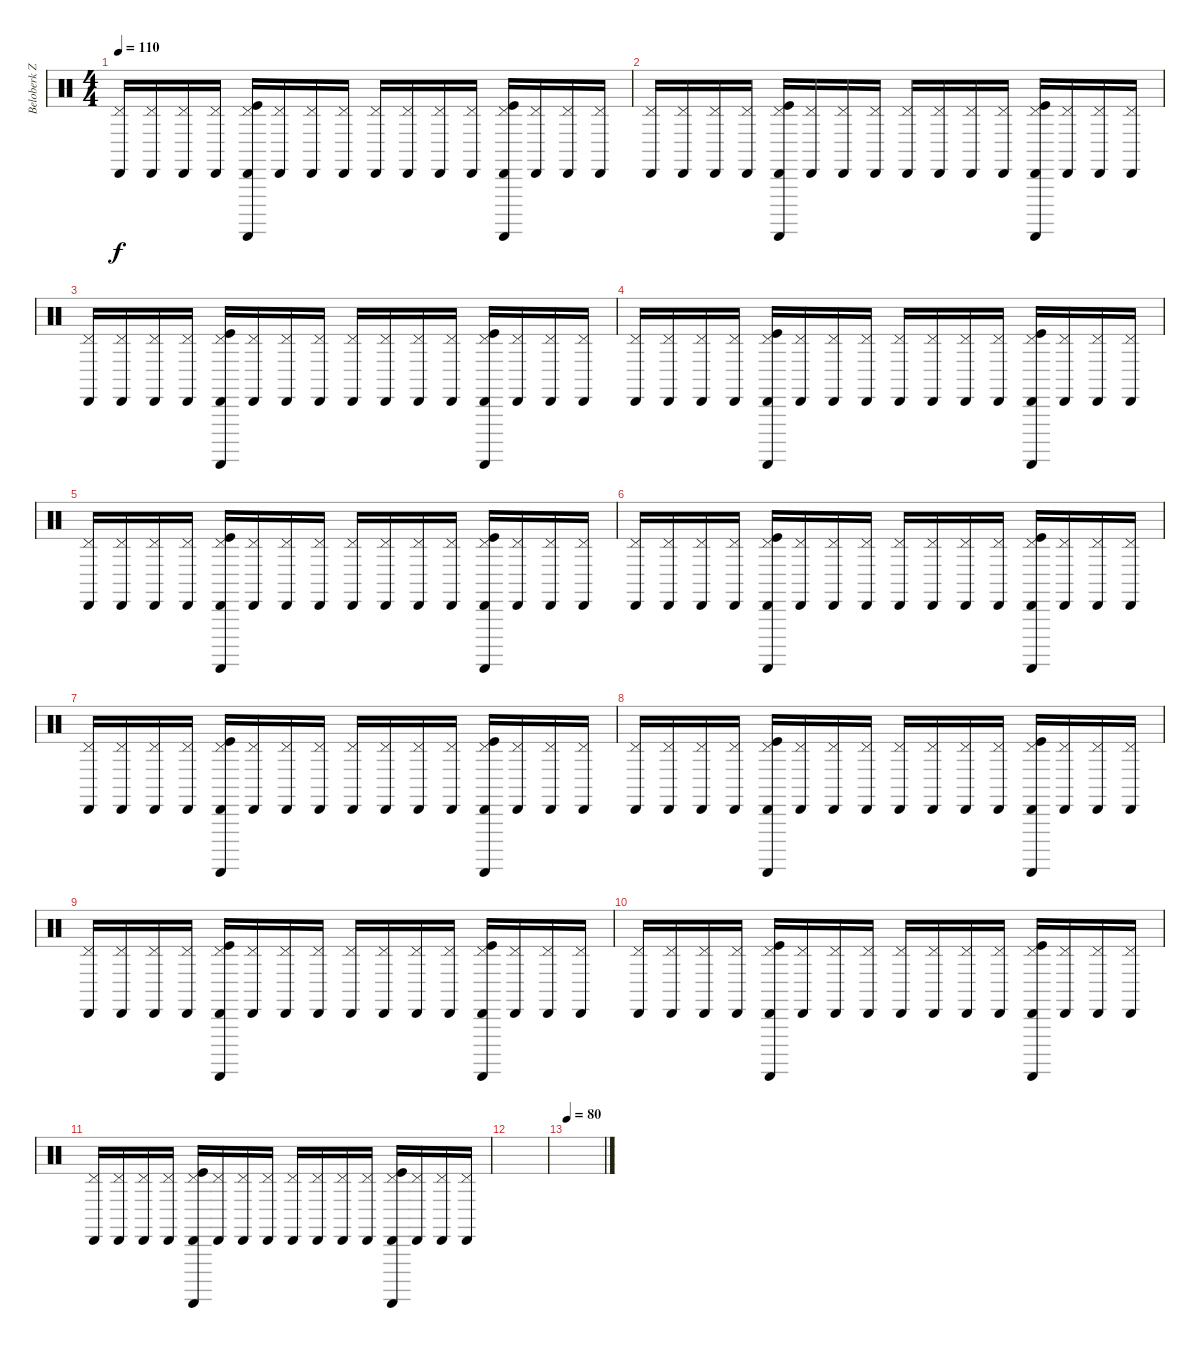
\track ("Beloberk Zsolt" "Beloberk Z") {instrument percussion}
\staff {score}
\articulation defaults
\ts (4 4)
\tempo 110
\clef neutral
\ks c
("Cabasa (hit)" "Pedal Hi-Hat (hit)").16{dy f} ("Cabasa (hit)" "Pedal Hi-Hat (hit)").16 ("Cabasa (hit)" "Pedal Hi-Hat (hit)").16 ("Cabasa (hit)" "Pedal Hi-Hat (hit)").16 ("Cabasa (hit)" "Guiro (scrap-return)" "Pedal Hi-Hat (hit)" "Kick (hit)").16 ("Cabasa (hit)" "Pedal Hi-Hat (hit)").16 ("Cabasa (hit)" "Pedal Hi-Hat (hit)").16 ("Cabasa (hit)" "Pedal Hi-Hat (hit)").16 ("Cabasa (hit)" "Pedal Hi-Hat (hit)").16 ("Cabasa (hit)" "Pedal Hi-Hat (hit)").16 ("Cabasa (hit)" "Pedal Hi-Hat (hit)").16 ("Cabasa (hit)" "Pedal Hi-Hat (hit)").16 ("Cabasa (hit)" "Guiro (scrap-return)" "Pedal Hi-Hat (hit)" "Kick (hit)").16 ("Cabasa (hit)" "Pedal Hi-Hat (hit)").16 ("Cabasa (hit)" "Pedal Hi-Hat (hit)").16 ("Cabasa (hit)" "Pedal Hi-Hat (hit)").16 |
("Cabasa (hit)" "Pedal Hi-Hat (hit)").16 ("Cabasa (hit)" "Pedal Hi-Hat (hit)").16 ("Cabasa (hit)" "Pedal Hi-Hat (hit)").16 ("Cabasa (hit)" "Pedal Hi-Hat (hit)").16 ("Cabasa (hit)" "Guiro (scrap-return)" "Pedal Hi-Hat (hit)" "Kick (hit)").16 ("Cabasa (hit)" "Pedal Hi-Hat (hit)").16 ("Cabasa (hit)" "Pedal Hi-Hat (hit)").16 ("Cabasa (hit)" "Pedal Hi-Hat (hit)").16 ("Cabasa (hit)" "Pedal Hi-Hat (hit)").16 ("Cabasa (hit)" "Pedal Hi-Hat (hit)").16 ("Cabasa (hit)" "Pedal Hi-Hat (hit)").16 ("Cabasa (hit)" "Pedal Hi-Hat (hit)").16 ("Cabasa (hit)" "Guiro (scrap-return)" "Pedal Hi-Hat (hit)" "Kick (hit)").16 ("Cabasa (hit)" "Pedal Hi-Hat (hit)").16 ("Cabasa (hit)" "Pedal Hi-Hat (hit)").16 ("Cabasa (hit)" "Pedal Hi-Hat (hit)").16 |
("Cabasa (hit)" "Pedal Hi-Hat (hit)").16 ("Cabasa (hit)" "Pedal Hi-Hat (hit)").16 ("Cabasa (hit)" "Pedal Hi-Hat (hit)").16 ("Cabasa (hit)" "Pedal Hi-Hat (hit)").16 ("Cabasa (hit)" "Guiro (scrap-return)" "Pedal Hi-Hat (hit)" "Kick (hit)").16 ("Cabasa (hit)" "Pedal Hi-Hat (hit)").16 ("Cabasa (hit)" "Pedal Hi-Hat (hit)").16 ("Cabasa (hit)" "Pedal Hi-Hat (hit)").16 ("Cabasa (hit)" "Pedal Hi-Hat (hit)").16 ("Cabasa (hit)" "Pedal Hi-Hat (hit)").16 ("Cabasa (hit)" "Pedal Hi-Hat (hit)").16 ("Cabasa (hit)" "Pedal Hi-Hat (hit)").16 ("Cabasa (hit)" "Guiro (scrap-return)" "Pedal Hi-Hat (hit)" "Kick (hit)").16 ("Cabasa (hit)" "Pedal Hi-Hat (hit)").16 ("Cabasa (hit)" "Pedal Hi-Hat (hit)").16 ("Cabasa (hit)" "Pedal Hi-Hat (hit)").16 |
("Cabasa (hit)" "Pedal Hi-Hat (hit)").16 ("Cabasa (hit)" "Pedal Hi-Hat (hit)").16 ("Cabasa (hit)" "Pedal Hi-Hat (hit)").16 ("Cabasa (hit)" "Pedal Hi-Hat (hit)").16 ("Cabasa (hit)" "Guiro (scrap-return)" "Pedal Hi-Hat (hit)" "Kick (hit)").16 ("Cabasa (hit)" "Pedal Hi-Hat (hit)").16 ("Cabasa (hit)" "Pedal Hi-Hat (hit)").16 ("Cabasa (hit)" "Pedal Hi-Hat (hit)").16 ("Cabasa (hit)" "Pedal Hi-Hat (hit)").16 ("Cabasa (hit)" "Pedal Hi-Hat (hit)").16 ("Cabasa (hit)" "Pedal Hi-Hat (hit)").16 ("Cabasa (hit)" "Pedal Hi-Hat (hit)").16 ("Cabasa (hit)" "Guiro (scrap-return)" "Pedal Hi-Hat (hit)" "Kick (hit)").16 ("Cabasa (hit)" "Pedal Hi-Hat (hit)").16 ("Cabasa (hit)" "Pedal Hi-Hat (hit)").16 ("Cabasa (hit)" "Pedal Hi-Hat (hit)").16 |
("Cabasa (hit)" "Pedal Hi-Hat (hit)").16 ("Cabasa (hit)" "Pedal Hi-Hat (hit)").16 ("Cabasa (hit)" "Pedal Hi-Hat (hit)").16 ("Cabasa (hit)" "Pedal Hi-Hat (hit)").16 ("Cabasa (hit)" "Guiro (scrap-return)" "Pedal Hi-Hat (hit)" "Kick (hit)").16 ("Cabasa (hit)" "Pedal Hi-Hat (hit)").16 ("Cabasa (hit)" "Pedal Hi-Hat (hit)").16 ("Cabasa (hit)" "Pedal Hi-Hat (hit)").16 ("Cabasa (hit)" "Pedal Hi-Hat (hit)").16 ("Cabasa (hit)" "Pedal Hi-Hat (hit)").16 ("Cabasa (hit)" "Pedal Hi-Hat (hit)").16 ("Cabasa (hit)" "Pedal Hi-Hat (hit)").16 ("Cabasa (hit)" "Guiro (scrap-return)" "Pedal Hi-Hat (hit)" "Kick (hit)").16 ("Cabasa (hit)" "Pedal Hi-Hat (hit)").16 ("Cabasa (hit)" "Pedal Hi-Hat (hit)").16 ("Cabasa (hit)" "Pedal Hi-Hat (hit)").16 |
("Cabasa (hit)" "Pedal Hi-Hat (hit)").16 ("Cabasa (hit)" "Pedal Hi-Hat (hit)").16 ("Cabasa (hit)" "Pedal Hi-Hat (hit)").16 ("Cabasa (hit)" "Pedal Hi-Hat (hit)").16 ("Cabasa (hit)" "Guiro (scrap-return)" "Pedal Hi-Hat (hit)" "Kick (hit)").16 ("Cabasa (hit)" "Pedal Hi-Hat (hit)").16 ("Cabasa (hit)" "Pedal Hi-Hat (hit)").16 ("Cabasa (hit)" "Pedal Hi-Hat (hit)").16 ("Cabasa (hit)" "Pedal Hi-Hat (hit)").16 ("Cabasa (hit)" "Pedal Hi-Hat (hit)").16 ("Cabasa (hit)" "Pedal Hi-Hat (hit)").16 ("Cabasa (hit)" "Pedal Hi-Hat (hit)").16 ("Cabasa (hit)" "Guiro (scrap-return)" "Pedal Hi-Hat (hit)" "Kick (hit)").16 ("Cabasa (hit)" "Pedal Hi-Hat (hit)").16 ("Cabasa (hit)" "Pedal Hi-Hat (hit)").16 ("Cabasa (hit)" "Pedal Hi-Hat (hit)").16 |
("Cabasa (hit)" "Pedal Hi-Hat (hit)").16 ("Cabasa (hit)" "Pedal Hi-Hat (hit)").16 ("Cabasa (hit)" "Pedal Hi-Hat (hit)").16 ("Cabasa (hit)" "Pedal Hi-Hat (hit)").16 ("Cabasa (hit)" "Guiro (scrap-return)" "Pedal Hi-Hat (hit)" "Kick (hit)").16 ("Cabasa (hit)" "Pedal Hi-Hat (hit)").16 ("Cabasa (hit)" "Pedal Hi-Hat (hit)").16 ("Cabasa (hit)" "Pedal Hi-Hat (hit)").16 ("Cabasa (hit)" "Pedal Hi-Hat (hit)").16 ("Cabasa (hit)" "Pedal Hi-Hat (hit)").16 ("Cabasa (hit)" "Pedal Hi-Hat (hit)").16 ("Cabasa (hit)" "Pedal Hi-Hat (hit)").16 ("Cabasa (hit)" "Guiro (scrap-return)" "Pedal Hi-Hat (hit)" "Kick (hit)").16 ("Cabasa (hit)" "Pedal Hi-Hat (hit)").16 ("Cabasa (hit)" "Pedal Hi-Hat (hit)").16 ("Cabasa (hit)" "Pedal Hi-Hat (hit)").16 |
("Cabasa (hit)" "Pedal Hi-Hat (hit)").16 ("Cabasa (hit)" "Pedal Hi-Hat (hit)").16 ("Cabasa (hit)" "Pedal Hi-Hat (hit)").16 ("Cabasa (hit)" "Pedal Hi-Hat (hit)").16 ("Cabasa (hit)" "Guiro (scrap-return)" "Pedal Hi-Hat (hit)" "Kick (hit)").16 ("Cabasa (hit)" "Pedal Hi-Hat (hit)").16 ("Cabasa (hit)" "Pedal Hi-Hat (hit)").16 ("Cabasa (hit)" "Pedal Hi-Hat (hit)").16 ("Cabasa (hit)" "Pedal Hi-Hat (hit)").16 ("Cabasa (hit)" "Pedal Hi-Hat (hit)").16 ("Cabasa (hit)" "Pedal Hi-Hat (hit)").16 ("Cabasa (hit)" "Pedal Hi-Hat (hit)").16 ("Cabasa (hit)" "Guiro (scrap-return)" "Pedal Hi-Hat (hit)" "Kick (hit)").16 ("Cabasa (hit)" "Pedal Hi-Hat (hit)").16 ("Cabasa (hit)" "Pedal Hi-Hat (hit)").16 ("Cabasa (hit)" "Pedal Hi-Hat (hit)").16 |
("Cabasa (hit)" "Pedal Hi-Hat (hit)").16 ("Cabasa (hit)" "Pedal Hi-Hat (hit)").16 ("Cabasa (hit)" "Pedal Hi-Hat (hit)").16 ("Cabasa (hit)" "Pedal Hi-Hat (hit)").16 ("Cabasa (hit)" "Guiro (scrap-return)" "Pedal Hi-Hat (hit)" "Kick (hit)").16 ("Cabasa (hit)" "Pedal Hi-Hat (hit)").16 ("Cabasa (hit)" "Pedal Hi-Hat (hit)").16 ("Cabasa (hit)" "Pedal Hi-Hat (hit)").16 ("Cabasa (hit)" "Pedal Hi-Hat (hit)").16 ("Cabasa (hit)" "Pedal Hi-Hat (hit)").16 ("Cabasa (hit)" "Pedal Hi-Hat (hit)").16 ("Cabasa (hit)" "Pedal Hi-Hat (hit)").16 ("Cabasa (hit)" "Guiro (scrap-return)" "Pedal Hi-Hat (hit)" "Kick (hit)").16 ("Cabasa (hit)" "Pedal Hi-Hat (hit)").16 ("Cabasa (hit)" "Pedal Hi-Hat (hit)").16 ("Cabasa (hit)" "Pedal Hi-Hat (hit)").16 |
("Cabasa (hit)" "Pedal Hi-Hat (hit)").16 ("Cabasa (hit)" "Pedal Hi-Hat (hit)").16 ("Cabasa (hit)" "Pedal Hi-Hat (hit)").16 ("Cabasa (hit)" "Pedal Hi-Hat (hit)").16 ("Cabasa (hit)" "Guiro (scrap-return)" "Pedal Hi-Hat (hit)" "Kick (hit)").16 ("Cabasa (hit)" "Pedal Hi-Hat (hit)").16 ("Cabasa (hit)" "Pedal Hi-Hat (hit)").16 ("Cabasa (hit)" "Pedal Hi-Hat (hit)").16 ("Cabasa (hit)" "Pedal Hi-Hat (hit)").16 ("Cabasa (hit)" "Pedal Hi-Hat (hit)").16 ("Cabasa (hit)" "Pedal Hi-Hat (hit)").16 ("Cabasa (hit)" "Pedal Hi-Hat (hit)").16 ("Cabasa (hit)" "Guiro (scrap-return)" "Pedal Hi-Hat (hit)" "Kick (hit)").16 ("Cabasa (hit)" "Pedal Hi-Hat (hit)").16 ("Cabasa (hit)" "Pedal Hi-Hat (hit)").16 ("Cabasa (hit)" "Pedal Hi-Hat (hit)").16 |
("Cabasa (hit)" "Pedal Hi-Hat (hit)").16 ("Cabasa (hit)" "Pedal Hi-Hat (hit)").16 ("Cabasa (hit)" "Pedal Hi-Hat (hit)").16 ("Cabasa (hit)" "Pedal Hi-Hat (hit)").16 ("Cabasa (hit)" "Guiro (scrap-return)" "Pedal Hi-Hat (hit)" "Kick (hit)").16 ("Cabasa (hit)" "Pedal Hi-Hat (hit)").16 ("Cabasa (hit)" "Pedal Hi-Hat (hit)").16 ("Cabasa (hit)" "Pedal Hi-Hat (hit)").16 ("Cabasa (hit)" "Pedal Hi-Hat (hit)").16 ("Cabasa (hit)" "Pedal Hi-Hat (hit)").16 ("Cabasa (hit)" "Pedal Hi-Hat (hit)").16 ("Cabasa (hit)" "Pedal Hi-Hat (hit)").16 ("Cabasa (hit)" "Guiro (scrap-return)" "Pedal Hi-Hat (hit)" "Kick (hit)").16 ("Cabasa (hit)" "Pedal Hi-Hat (hit)").16 ("Cabasa (hit)" "Pedal Hi-Hat (hit)").16 ("Cabasa (hit)" "Pedal Hi-Hat (hit)").16 |
|
\tempo 80
